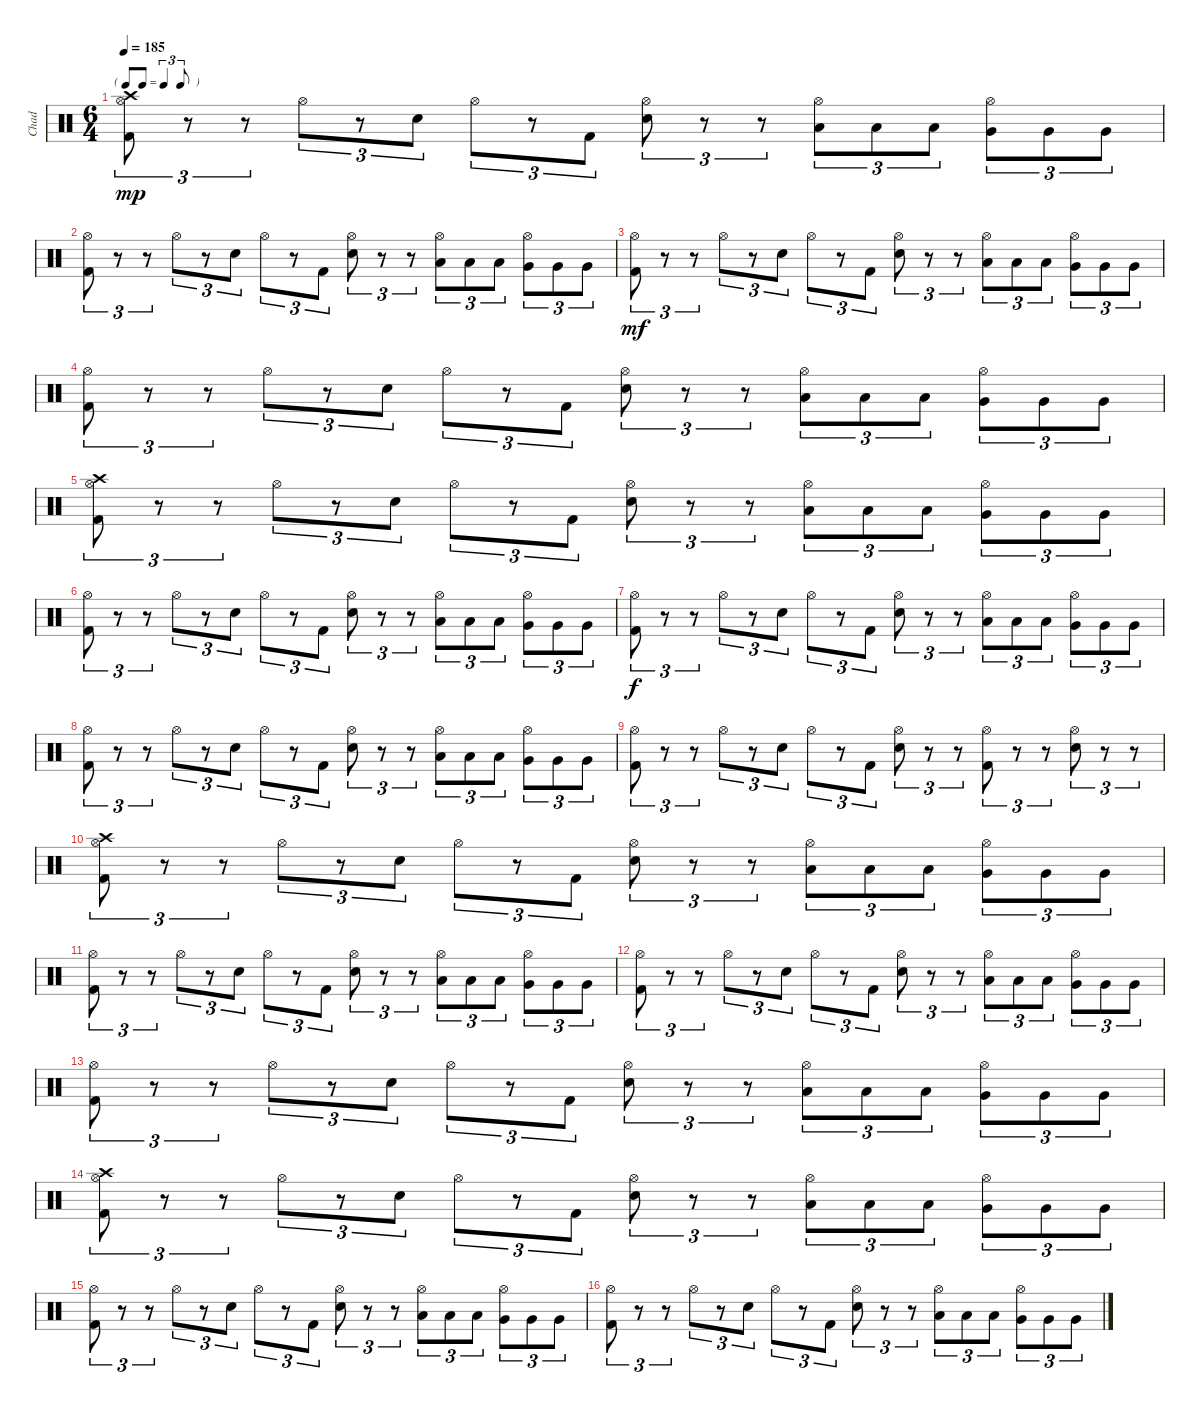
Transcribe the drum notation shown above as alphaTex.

\track ("Chad" "Chad") {instrument percussion}
\staff {score}
\articulation defaults
\ts (6 4)
\tf triplet8th
\tempo 185
\clef neutral
\ks c
("Kick (hit) 2" "Hi-Hat (open)" "Crash high (hit)").8{tu (3 2) dy mp} r.8{tu (3 2)} r.8{tu (3 2)} "Hi-Hat (open)".8{tu (3 2)} r.8{tu (3 2)} "Electric Snare (hit)".8{tu (3 2)} "Hi-Hat (open)".8{tu (3 2)} r.8{tu (3 2)} "Kick (hit) 2".8{tu (3 2)} ("Electric Snare (hit)" "Hi-Hat (open)").8{tu (3 2)} r.8{tu (3 2)} r.8{tu (3 2)} ("Low Tom (hit)" "Hi-Hat (open)").8{tu (3 2)} "Low Tom (hit)".8{tu (3 2)} "Low Tom (hit)".8{tu (3 2)} ("Very Low Tom (hit)" "Hi-Hat (open)").8{tu (3 2)} "Very Low Tom (hit)".8{tu (3 2)} "Very Low Tom (hit)".8{tu (3 2)} |
("Kick (hit) 2" "Hi-Hat (open)").8{tu (3 2)} r.8{tu (3 2)} r.8{tu (3 2)} "Hi-Hat (open)".8{tu (3 2)} r.8{tu (3 2)} "Electric Snare (hit)".8{tu (3 2)} "Hi-Hat (open)".8{tu (3 2)} r.8{tu (3 2)} "Kick (hit) 2".8{tu (3 2)} ("Electric Snare (hit)" "Hi-Hat (open)").8{tu (3 2)} r.8{tu (3 2)} r.8{tu (3 2)} ("Low Tom (hit)" "Hi-Hat (open)").8{tu (3 2)} "Low Tom (hit)".8{tu (3 2)} "Low Tom (hit)".8{tu (3 2)} ("Very Low Tom (hit)" "Hi-Hat (open)").8{tu (3 2)} "Very Low Tom (hit)".8{tu (3 2)} "Very Low Tom (hit)".8{tu (3 2)} |
("Kick (hit) 2" "Hi-Hat (open)").8{tu (3 2) dy mf} r.8{tu (3 2)} r.8{tu (3 2)} "Hi-Hat (open)".8{tu (3 2)} r.8{tu (3 2)} "Electric Snare (hit)".8{tu (3 2)} "Hi-Hat (open)".8{tu (3 2)} r.8{tu (3 2)} "Kick (hit) 2".8{tu (3 2)} ("Electric Snare (hit)" "Hi-Hat (open)").8{tu (3 2)} r.8{tu (3 2)} r.8{tu (3 2)} ("Low Tom (hit)" "Hi-Hat (open)").8{tu (3 2)} "Low Tom (hit)".8{tu (3 2)} "Low Tom (hit)".8{tu (3 2)} ("Very Low Tom (hit)" "Hi-Hat (open)").8{tu (3 2)} "Very Low Tom (hit)".8{tu (3 2)} "Very Low Tom (hit)".8{tu (3 2)} |
("Kick (hit) 2" "Hi-Hat (open)").8{tu (3 2)} r.8{tu (3 2)} r.8{tu (3 2)} "Hi-Hat (open)".8{tu (3 2)} r.8{tu (3 2)} "Electric Snare (hit)".8{tu (3 2)} "Hi-Hat (open)".8{tu (3 2)} r.8{tu (3 2)} "Kick (hit) 2".8{tu (3 2)} ("Electric Snare (hit)" "Hi-Hat (open)").8{tu (3 2)} r.8{tu (3 2)} r.8{tu (3 2)} ("Low Tom (hit)" "Hi-Hat (open)").8{tu (3 2)} "Low Tom (hit)".8{tu (3 2)} "Low Tom (hit)".8{tu (3 2)} ("Very Low Tom (hit)" "Hi-Hat (open)").8{tu (3 2)} "Very Low Tom (hit)".8{tu (3 2)} "Very Low Tom (hit)".8{tu (3 2)} |
("Kick (hit) 2" "Hi-Hat (open)" "Crash high (hit)").8{tu (3 2)} r.8{tu (3 2)} r.8{tu (3 2)} "Hi-Hat (open)".8{tu (3 2)} r.8{tu (3 2)} "Electric Snare (hit)".8{tu (3 2)} "Hi-Hat (open)".8{tu (3 2)} r.8{tu (3 2)} "Kick (hit) 2".8{tu (3 2)} ("Electric Snare (hit)" "Hi-Hat (open)").8{tu (3 2)} r.8{tu (3 2)} r.8{tu (3 2)} ("Low Tom (hit)" "Hi-Hat (open)").8{tu (3 2)} "Low Tom (hit)".8{tu (3 2)} "Low Tom (hit)".8{tu (3 2)} ("Very Low Tom (hit)" "Hi-Hat (open)").8{tu (3 2)} "Very Low Tom (hit)".8{tu (3 2)} "Very Low Tom (hit)".8{tu (3 2)} |
("Kick (hit) 2" "Hi-Hat (open)").8{tu (3 2)} r.8{tu (3 2)} r.8{tu (3 2)} "Hi-Hat (open)".8{tu (3 2)} r.8{tu (3 2)} "Electric Snare (hit)".8{tu (3 2)} "Hi-Hat (open)".8{tu (3 2)} r.8{tu (3 2)} "Kick (hit) 2".8{tu (3 2)} ("Electric Snare (hit)" "Hi-Hat (open)").8{tu (3 2)} r.8{tu (3 2)} r.8{tu (3 2)} ("Low Tom (hit)" "Hi-Hat (open)").8{tu (3 2)} "Low Tom (hit)".8{tu (3 2)} "Low Tom (hit)".8{tu (3 2)} ("Very Low Tom (hit)" "Hi-Hat (open)").8{tu (3 2)} "Very Low Tom (hit)".8{tu (3 2)} "Very Low Tom (hit)".8{tu (3 2)} |
("Kick (hit) 2" "Hi-Hat (open)").8{tu (3 2) dy f} r.8{tu (3 2)} r.8{tu (3 2)} "Hi-Hat (open)".8{tu (3 2)} r.8{tu (3 2)} "Electric Snare (hit)".8{tu (3 2)} "Hi-Hat (open)".8{tu (3 2)} r.8{tu (3 2)} "Kick (hit) 2".8{tu (3 2)} ("Electric Snare (hit)" "Hi-Hat (open)").8{tu (3 2)} r.8{tu (3 2)} r.8{tu (3 2)} ("Low Tom (hit)" "Hi-Hat (open)").8{tu (3 2)} "Low Tom (hit)".8{tu (3 2)} "Low Tom (hit)".8{tu (3 2)} ("Very Low Tom (hit)" "Hi-Hat (open)").8{tu (3 2)} "Very Low Tom (hit)".8{tu (3 2)} "Very Low Tom (hit)".8{tu (3 2)} |
("Kick (hit) 2" "Hi-Hat (open)").8{tu (3 2)} r.8{tu (3 2)} r.8{tu (3 2)} "Hi-Hat (open)".8{tu (3 2)} r.8{tu (3 2)} "Electric Snare (hit)".8{tu (3 2)} "Hi-Hat (open)".8{tu (3 2)} r.8{tu (3 2)} "Kick (hit) 2".8{tu (3 2)} ("Electric Snare (hit)" "Hi-Hat (open)").8{tu (3 2)} r.8{tu (3 2)} r.8{tu (3 2)} ("Low Tom (hit)" "Hi-Hat (open)").8{tu (3 2)} "Low Tom (hit)".8{tu (3 2)} "Low Tom (hit)".8{tu (3 2)} ("Very Low Tom (hit)" "Hi-Hat (open)").8{tu (3 2)} "Very Low Tom (hit)".8{tu (3 2)} "Very Low Tom (hit)".8{tu (3 2)} |
("Kick (hit) 2" "Hi-Hat (open)").8{tu (3 2)} r.8{tu (3 2)} r.8{tu (3 2)} "Hi-Hat (open)".8{tu (3 2)} r.8{tu (3 2)} "Electric Snare (hit)".8{tu (3 2)} "Hi-Hat (open)".8{tu (3 2)} r.8{tu (3 2)} "Kick (hit) 2".8{tu (3 2)} ("Electric Snare (hit)" "Hi-Hat (open)").8{tu (3 2)} r.8{tu (3 2)} r.8{tu (3 2)} ("Kick (hit) 2" "Hi-Hat (open)").8{tu (3 2)} r.8{tu (3 2)} r.8{tu (3 2)} ("Electric Snare (hit)" "Hi-Hat (open)").8{tu (3 2)} r.8{tu (3 2)} r.8{tu (3 2)} |
("Kick (hit) 2" "Hi-Hat (open)" "Crash high (hit)").8{tu (3 2)} r.8{tu (3 2)} r.8{tu (3 2)} "Hi-Hat (open)".8{tu (3 2)} r.8{tu (3 2)} "Electric Snare (hit)".8{tu (3 2)} "Hi-Hat (open)".8{tu (3 2)} r.8{tu (3 2)} "Kick (hit) 2".8{tu (3 2)} ("Electric Snare (hit)" "Hi-Hat (open)").8{tu (3 2)} r.8{tu (3 2)} r.8{tu (3 2)} ("Low Tom (hit)" "Hi-Hat (open)").8{tu (3 2)} "Low Tom (hit)".8{tu (3 2)} "Low Tom (hit)".8{tu (3 2)} ("Very Low Tom (hit)" "Hi-Hat (open)").8{tu (3 2)} "Very Low Tom (hit)".8{tu (3 2)} "Very Low Tom (hit)".8{tu (3 2)} |
("Kick (hit) 2" "Hi-Hat (open)").8{tu (3 2)} r.8{tu (3 2)} r.8{tu (3 2)} "Hi-Hat (open)".8{tu (3 2)} r.8{tu (3 2)} "Electric Snare (hit)".8{tu (3 2)} "Hi-Hat (open)".8{tu (3 2)} r.8{tu (3 2)} "Kick (hit) 2".8{tu (3 2)} ("Electric Snare (hit)" "Hi-Hat (open)").8{tu (3 2)} r.8{tu (3 2)} r.8{tu (3 2)} ("Low Tom (hit)" "Hi-Hat (open)").8{tu (3 2)} "Low Tom (hit)".8{tu (3 2)} "Low Tom (hit)".8{tu (3 2)} ("Very Low Tom (hit)" "Hi-Hat (open)").8{tu (3 2)} "Very Low Tom (hit)".8{tu (3 2)} "Very Low Tom (hit)".8{tu (3 2)} |
("Kick (hit) 2" "Hi-Hat (open)").8{tu (3 2)} r.8{tu (3 2)} r.8{tu (3 2)} "Hi-Hat (open)".8{tu (3 2)} r.8{tu (3 2)} "Electric Snare (hit)".8{tu (3 2)} "Hi-Hat (open)".8{tu (3 2)} r.8{tu (3 2)} "Kick (hit) 2".8{tu (3 2)} ("Electric Snare (hit)" "Hi-Hat (open)").8{tu (3 2)} r.8{tu (3 2)} r.8{tu (3 2)} ("Low Tom (hit)" "Hi-Hat (open)").8{tu (3 2)} "Low Tom (hit)".8{tu (3 2)} "Low Tom (hit)".8{tu (3 2)} ("Very Low Tom (hit)" "Hi-Hat (open)").8{tu (3 2)} "Very Low Tom (hit)".8{tu (3 2)} "Very Low Tom (hit)".8{tu (3 2)} |
("Kick (hit) 2" "Hi-Hat (open)").8{tu (3 2)} r.8{tu (3 2)} r.8{tu (3 2)} "Hi-Hat (open)".8{tu (3 2)} r.8{tu (3 2)} "Electric Snare (hit)".8{tu (3 2)} "Hi-Hat (open)".8{tu (3 2)} r.8{tu (3 2)} "Kick (hit) 2".8{tu (3 2)} ("Electric Snare (hit)" "Hi-Hat (open)").8{tu (3 2)} r.8{tu (3 2)} r.8{tu (3 2)} ("Low Tom (hit)" "Hi-Hat (open)").8{tu (3 2)} "Low Tom (hit)".8{tu (3 2)} "Low Tom (hit)".8{tu (3 2)} ("Very Low Tom (hit)" "Hi-Hat (open)").8{tu (3 2)} "Very Low Tom (hit)".8{tu (3 2)} "Very Low Tom (hit)".8{tu (3 2)} |
("Kick (hit) 2" "Hi-Hat (open)" "Crash high (hit)").8{tu (3 2)} r.8{tu (3 2)} r.8{tu (3 2)} "Hi-Hat (open)".8{tu (3 2)} r.8{tu (3 2)} "Electric Snare (hit)".8{tu (3 2)} "Hi-Hat (open)".8{tu (3 2)} r.8{tu (3 2)} "Kick (hit) 2".8{tu (3 2)} ("Electric Snare (hit)" "Hi-Hat (open)").8{tu (3 2)} r.8{tu (3 2)} r.8{tu (3 2)} ("Low Tom (hit)" "Hi-Hat (open)").8{tu (3 2)} "Low Tom (hit)".8{tu (3 2)} "Low Tom (hit)".8{tu (3 2)} ("Very Low Tom (hit)" "Hi-Hat (open)").8{tu (3 2)} "Very Low Tom (hit)".8{tu (3 2)} "Very Low Tom (hit)".8{tu (3 2)} |
("Kick (hit) 2" "Hi-Hat (open)").8{tu (3 2)} r.8{tu (3 2)} r.8{tu (3 2)} "Hi-Hat (open)".8{tu (3 2)} r.8{tu (3 2)} "Electric Snare (hit)".8{tu (3 2)} "Hi-Hat (open)".8{tu (3 2)} r.8{tu (3 2)} "Kick (hit) 2".8{tu (3 2)} ("Electric Snare (hit)" "Hi-Hat (open)").8{tu (3 2)} r.8{tu (3 2)} r.8{tu (3 2)} ("Low Tom (hit)" "Hi-Hat (open)").8{tu (3 2)} "Low Tom (hit)".8{tu (3 2)} "Low Tom (hit)".8{tu (3 2)} ("Very Low Tom (hit)" "Hi-Hat (open)").8{tu (3 2)} "Very Low Tom (hit)".8{tu (3 2)} "Very Low Tom (hit)".8{tu (3 2)} |
("Kick (hit) 2" "Hi-Hat (open)").8{tu (3 2)} r.8{tu (3 2)} r.8{tu (3 2)} "Hi-Hat (open)".8{tu (3 2)} r.8{tu (3 2)} "Electric Snare (hit)".8{tu (3 2)} "Hi-Hat (open)".8{tu (3 2)} r.8{tu (3 2)} "Kick (hit) 2".8{tu (3 2)} ("Electric Snare (hit)" "Hi-Hat (open)").8{tu (3 2)} r.8{tu (3 2)} r.8{tu (3 2)} ("Low Tom (hit)" "Hi-Hat (open)").8{tu (3 2)} "Low Tom (hit)".8{tu (3 2)} "Low Tom (hit)".8{tu (3 2)} ("Very Low Tom (hit)" "Hi-Hat (open)").8{tu (3 2)} "Very Low Tom (hit)".8{tu (3 2)} "Very Low Tom (hit)".8{tu (3 2)}
